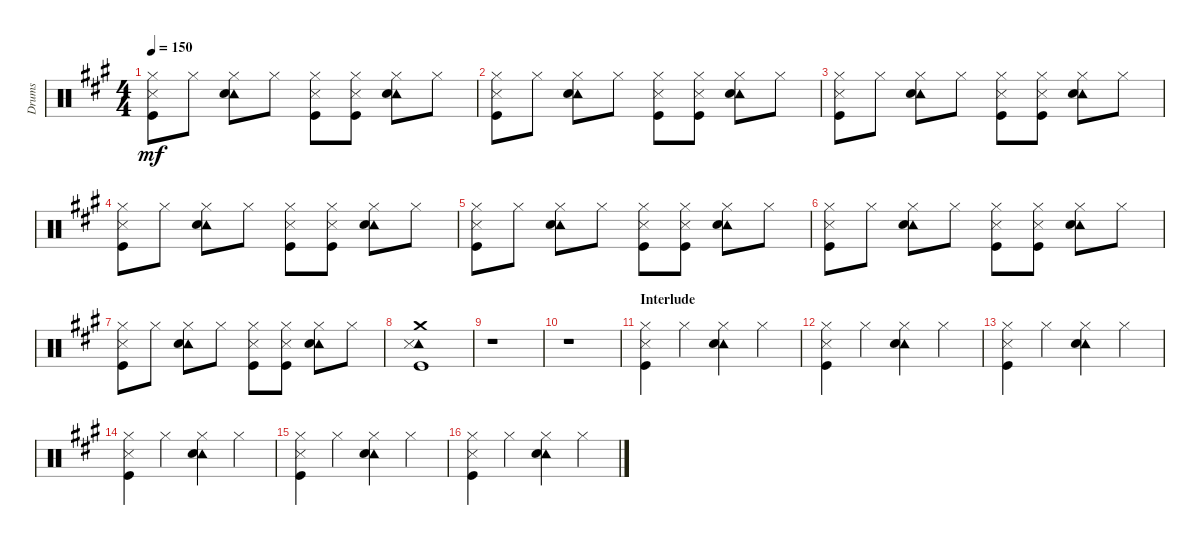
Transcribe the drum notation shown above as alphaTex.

\track ("Drums" "Drums") {instrument percussion}
\staff {score}
\articulation defaults
\ts (4 4)
\tempo 150
\clef neutral
\ks a
("Hi-Hat (closed)" "Metronome (hit)" "Kick (hit)").8{dy mf} "Hi-Hat (closed)".8 ("Tambourine (hit)" "Hi-Hat (closed)" "Electric Snare (hit)").8 "Hi-Hat (closed)".8 ("Hi-Hat (closed)" "Metronome (hit)" "Kick (hit)").8 ("Hi-Hat (closed)" "Metronome (hit)" "Kick (hit)").8 ("Tambourine (hit)" "Hi-Hat (closed)" "Electric Snare (hit)").8 "Hi-Hat (closed)".8 |
("Hi-Hat (closed)" "Metronome (hit)" "Kick (hit)").8 "Hi-Hat (closed)".8 ("Tambourine (hit)" "Hi-Hat (closed)" "Electric Snare (hit)").8 "Hi-Hat (closed)".8 ("Hi-Hat (closed)" "Metronome (hit)" "Kick (hit)").8 ("Hi-Hat (closed)" "Metronome (hit)" "Kick (hit)").8 ("Tambourine (hit)" "Hi-Hat (closed)" "Electric Snare (hit)").8 "Hi-Hat (closed)".8 |
("Hi-Hat (closed)" "Metronome (hit)" "Kick (hit)").8 "Hi-Hat (closed)".8 ("Tambourine (hit)" "Hi-Hat (closed)" "Electric Snare (hit)").8 "Hi-Hat (closed)".8 ("Hi-Hat (closed)" "Metronome (hit)" "Kick (hit)").8 ("Hi-Hat (closed)" "Metronome (hit)" "Kick (hit)").8 ("Tambourine (hit)" "Hi-Hat (closed)" "Electric Snare (hit)").8 "Hi-Hat (closed)".8 |
("Hi-Hat (closed)" "Metronome (hit)" "Kick (hit)").8 "Hi-Hat (closed)".8 ("Tambourine (hit)" "Hi-Hat (closed)" "Electric Snare (hit)").8 "Hi-Hat (closed)".8 ("Hi-Hat (closed)" "Metronome (hit)" "Kick (hit)").8 ("Hi-Hat (closed)" "Metronome (hit)" "Kick (hit)").8 ("Tambourine (hit)" "Hi-Hat (closed)" "Electric Snare (hit)").8 "Hi-Hat (closed)".8 |
("Hi-Hat (closed)" "Metronome (hit)" "Kick (hit)").8 "Hi-Hat (closed)".8 ("Tambourine (hit)" "Hi-Hat (closed)" "Electric Snare (hit)").8 "Hi-Hat (closed)".8 ("Hi-Hat (closed)" "Metronome (hit)" "Kick (hit)").8 ("Hi-Hat (closed)" "Metronome (hit)" "Kick (hit)").8 ("Tambourine (hit)" "Hi-Hat (closed)" "Electric Snare (hit)").8 "Hi-Hat (closed)".8 |
("Hi-Hat (closed)" "Metronome (hit)" "Kick (hit)").8 "Hi-Hat (closed)".8 ("Tambourine (hit)" "Hi-Hat (closed)" "Electric Snare (hit)").8 "Hi-Hat (closed)".8 ("Hi-Hat (closed)" "Metronome (hit)" "Kick (hit)").8 ("Hi-Hat (closed)" "Metronome (hit)" "Kick (hit)").8 ("Tambourine (hit)" "Hi-Hat (closed)" "Electric Snare (hit)").8 "Hi-Hat (closed)".8 |
("Hi-Hat (closed)" "Metronome (hit)" "Kick (hit)").8 "Hi-Hat (closed)".8 ("Tambourine (hit)" "Hi-Hat (closed)" "Electric Snare (hit)").8 "Hi-Hat (closed)".8 ("Hi-Hat (closed)" "Metronome (hit)" "Kick (hit)").8 ("Hi-Hat (closed)" "Metronome (hit)" "Kick (hit)").8 ("Tambourine (hit)" "Hi-Hat (closed)" "Electric Snare (hit)").8 "Hi-Hat (closed)".8 |
("Tambourine (hit)" "Crash medium (hit)" "Metronome (hit)" "Kick (hit)").1 |
r.1 |
r.1 |
\section ("" "Interlude")
("Hi-Hat (closed)" "Metronome (hit)" "Kick (hit)").4 "Hi-Hat (closed)".4 ("Tambourine (hit)" "Hi-Hat (closed)" "Electric Snare (hit)").4 "Hi-Hat (closed)".4 |
("Hi-Hat (closed)" "Metronome (hit)" "Kick (hit)").4 "Hi-Hat (closed)".4 ("Tambourine (hit)" "Hi-Hat (closed)" "Electric Snare (hit)").4 "Hi-Hat (closed)".4 |
("Hi-Hat (closed)" "Metronome (hit)" "Kick (hit)").4 "Hi-Hat (closed)".4 ("Tambourine (hit)" "Hi-Hat (closed)" "Electric Snare (hit)").4 "Hi-Hat (closed)".4 |
("Hi-Hat (closed)" "Metronome (hit)" "Kick (hit)").4 "Hi-Hat (closed)".4 ("Tambourine (hit)" "Hi-Hat (closed)" "Electric Snare (hit)").4 "Hi-Hat (closed)".4 |
("Hi-Hat (closed)" "Metronome (hit)" "Kick (hit)").4 "Hi-Hat (closed)".4 ("Tambourine (hit)" "Hi-Hat (closed)" "Electric Snare (hit)").4 "Hi-Hat (closed)".4 |
("Hi-Hat (closed)" "Metronome (hit)" "Kick (hit)").4 "Hi-Hat (closed)".4 ("Tambourine (hit)" "Hi-Hat (closed)" "Electric Snare (hit)").4 "Hi-Hat (closed)".4
